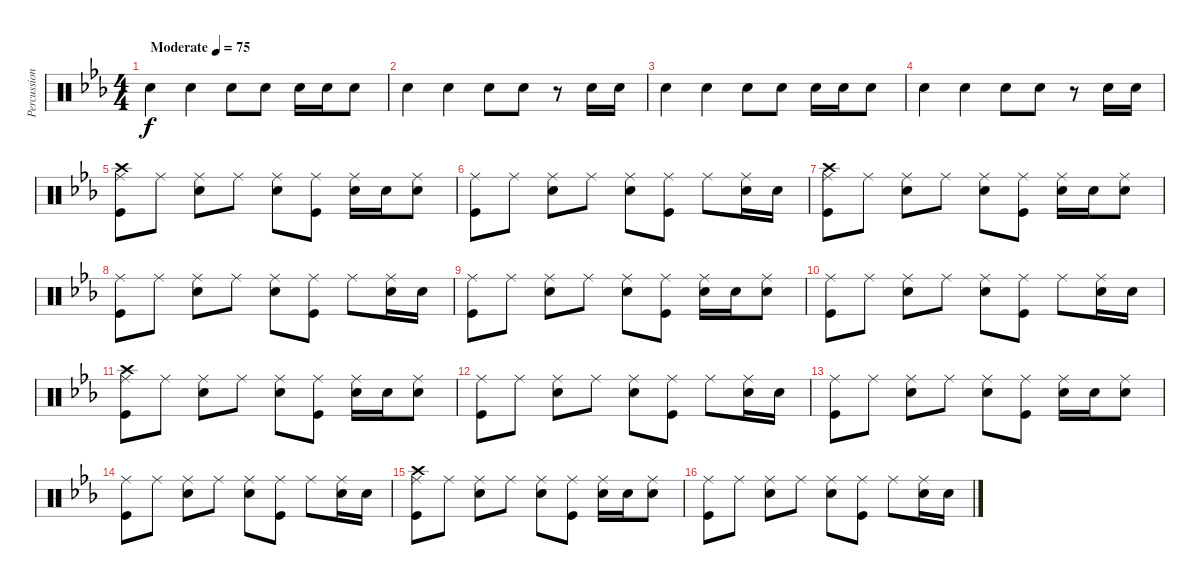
\track ("Percussion" "Percussion") {instrument percussion}
\staff {score}
\articulation defaults
\ts (4 4)
\tempo (75 "Moderate")
\clef neutral
\ks cminor "Snare (hit) 2".4{dy f} "Snare (hit) 2".4 "Snare (hit) 2".8 "Snare (hit) 2".8 "Snare (hit) 2".16 "Snare (hit) 2".16 "Snare (hit) 2".8
|
"Snare (hit) 2".4 "Snare (hit) 2".4 "Snare (hit) 2".8 "Snare (hit) 2".8 r.8 "Snare (hit) 2".16 "Snare (hit) 2".16 |
"Snare (hit) 2".4 "Snare (hit) 2".4 "Snare (hit) 2".8 "Snare (hit) 2".8 "Snare (hit) 2".16 "Snare (hit) 2".16 "Snare (hit) 2".8 |
"Snare (hit) 2".4 "Snare (hit) 2".4 "Snare (hit) 2".8 "Snare (hit) 2".8 r.8 "Snare (hit) 2".16 "Snare (hit) 2".16 |
("Crash high (hit)" "Ride (middle)" "Kick (hit)").8 "Ride (middle)".8 ("Ride (middle)" "Snare (hit) 2").8 "Ride (middle)".8 ("Ride (middle)" "Snare (hit) 2").8 ("Ride (middle)" "Kick (hit)").8 ("Ride (middle)" "Snare (hit) 2").16 "Snare (hit) 2".16 ("Ride (middle)" "Snare (hit) 2").8 |
("Ride (middle)" "Kick (hit)").8 "Ride (middle)".8 ("Ride (middle)" "Snare (hit) 2").8 "Ride (middle)".8 ("Ride (middle)" "Snare (hit) 2").8 ("Ride (middle)" "Kick (hit)").8 "Ride (middle)".8 ("Ride (middle)" "Snare (hit) 2").16 "Snare (hit) 2".16 |
("Crash high (hit)" "Ride (middle)" "Kick (hit)").8 "Ride (middle)".8 ("Ride (middle)" "Snare (hit) 2").8 "Ride (middle)".8 ("Ride (middle)" "Snare (hit) 2").8 ("Ride (middle)" "Kick (hit)").8 ("Ride (middle)" "Snare (hit) 2").16 "Snare (hit) 2".16 ("Ride (middle)" "Snare (hit) 2").8 |
("Ride (middle)" "Kick (hit)").8 "Ride (middle)".8 ("Ride (middle)" "Snare (hit) 2").8 "Ride (middle)".8 ("Ride (middle)" "Snare (hit) 2").8 ("Ride (middle)" "Kick (hit)").8 "Ride (middle)".8 ("Ride (middle)" "Snare (hit) 2").16 "Snare (hit) 2".16 |
("Ride (middle)" "Kick (hit)").8 "Ride (middle)".8 ("Ride (middle)" "Snare (hit) 2").8 "Ride (middle)".8 ("Ride (middle)" "Snare (hit) 2").8 ("Ride (middle)" "Kick (hit)").8 ("Ride (middle)" "Snare (hit) 2").16 "Snare (hit) 2".16 ("Ride (middle)" "Snare (hit) 2").8 |
("Ride (middle)" "Kick (hit)").8 "Ride (middle)".8 ("Ride (middle)" "Snare (hit) 2").8 "Ride (middle)".8 ("Ride (middle)" "Snare (hit) 2").8 ("Ride (middle)" "Kick (hit)").8 "Ride (middle)".8 ("Ride (middle)" "Snare (hit) 2").16 "Snare (hit) 2".16 |
("Crash high (hit)" "Ride (middle)" "Kick (hit)").8 "Ride (middle)".8 ("Ride (middle)" "Snare (hit) 2").8 "Ride (middle)".8 ("Ride (middle)" "Snare (hit) 2").8 ("Ride (middle)" "Kick (hit)").8 ("Ride (middle)" "Snare (hit) 2").16 "Snare (hit) 2".16 ("Ride (middle)" "Snare (hit) 2").8 |
("Ride (middle)" "Kick (hit)").8 "Ride (middle)".8 ("Ride (middle)" "Snare (hit) 2").8 "Ride (middle)".8 ("Ride (middle)" "Snare (hit) 2").8 ("Ride (middle)" "Kick (hit)").8 "Ride (middle)".8 ("Ride (middle)" "Snare (hit) 2").16 "Snare (hit) 2".16 |
("Ride (middle)" "Kick (hit)").8 "Ride (middle)".8 ("Ride (middle)" "Snare (hit) 2").8 "Ride (middle)".8 ("Ride (middle)" "Snare (hit) 2").8 ("Ride (middle)" "Kick (hit)").8 ("Ride (middle)" "Snare (hit) 2").16 "Snare (hit) 2".16 ("Ride (middle)" "Snare (hit) 2").8 |
("Ride (middle)" "Kick (hit)").8 "Ride (middle)".8 ("Ride (middle)" "Snare (hit) 2").8 "Ride (middle)".8 ("Ride (middle)" "Snare (hit) 2").8 ("Ride (middle)" "Kick (hit)").8 "Ride (middle)".8 ("Ride (middle)" "Snare (hit) 2").16 "Snare (hit) 2".16 |
("Crash high (hit)" "Ride (middle)" "Kick (hit)").8 "Ride (middle)".8 ("Ride (middle)" "Snare (hit) 2").8 "Ride (middle)".8 ("Ride (middle)" "Snare (hit) 2").8 ("Ride (middle)" "Kick (hit)").8 ("Ride (middle)" "Snare (hit) 2").16 "Snare (hit) 2".16 ("Ride (middle)" "Snare (hit) 2").8 |
("Ride (middle)" "Kick (hit)").8 "Ride (middle)".8 ("Ride (middle)" "Snare (hit) 2").8 "Ride (middle)".8 ("Ride (middle)" "Snare (hit) 2").8 ("Ride (middle)" "Kick (hit)").8 "Ride (middle)".8 ("Ride (middle)" "Snare (hit) 2").16 "Snare (hit) 2".16
